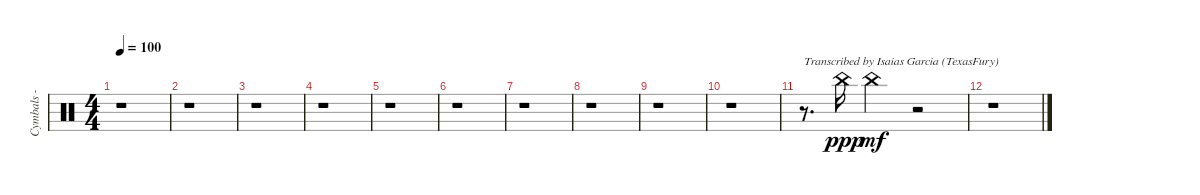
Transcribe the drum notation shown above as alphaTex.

\track ("Cymbals - crash" "Cymbals - ") {instrument percussion}
\staff {score}
\articulation defaults
\ts (4 4)
\tempo 100
\clef neutral
\ks aminor
r.1{dy f} |
r.1 |
r.1 |
r.1 |
r.1 |
r.1 |
r.1 |
r.1 |
r.1 |
r.1 |
r.8{d txt "Transcribed by Isaias Garcia (TexasFury)"} "China (hit)".16{dy ppp} "China (hit)".4{dy mf} r.2 |
r.1
